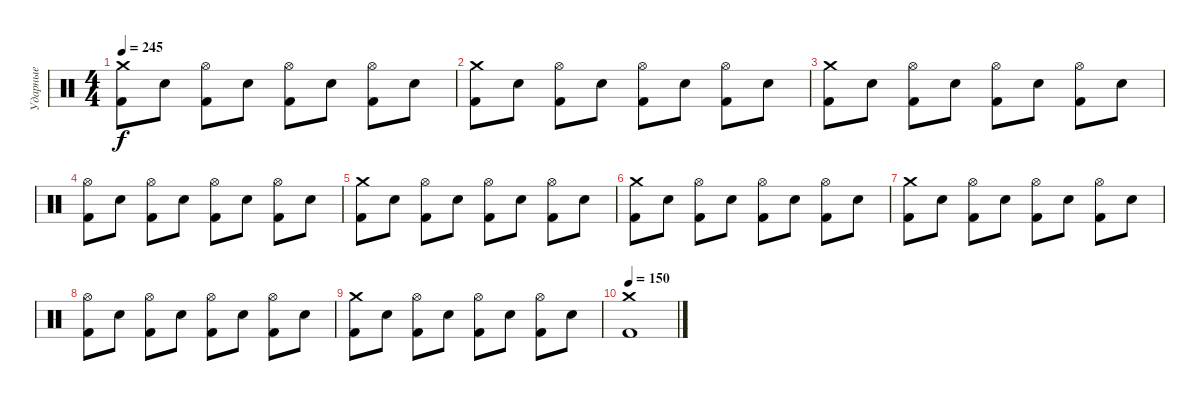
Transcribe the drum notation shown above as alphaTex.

\track ("Ударные" "Ударные") {instrument percussion}
\staff {score}
\articulation defaults
\ts (4 4)
\tempo 245
\clef neutral
\ks c
("Crash medium (hit)" "Kick (hit) 2").8{dy f} "Snare (hit) 2".8 ("Hi-Hat (open)" "Kick (hit) 2").8 "Snare (hit) 2".8 ("Hi-Hat (open)" "Kick (hit) 2").8 "Snare (hit) 2".8 ("Hi-Hat (open)" "Kick (hit) 2").8 "Snare (hit) 2".8 |
("Crash medium (hit)" "Kick (hit) 2").8 "Snare (hit) 2".8 ("Hi-Hat (open)" "Kick (hit) 2").8 "Snare (hit) 2".8 ("Hi-Hat (open)" "Kick (hit) 2").8 "Snare (hit) 2".8 ("Hi-Hat (open)" "Kick (hit) 2").8 "Snare (hit) 2".8 |
("Crash medium (hit)" "Kick (hit) 2").8 "Snare (hit) 2".8 ("Hi-Hat (open)" "Kick (hit) 2").8 "Snare (hit) 2".8 ("Hi-Hat (open)" "Kick (hit) 2").8 "Snare (hit) 2".8 ("Hi-Hat (open)" "Kick (hit) 2").8 "Snare (hit) 2".8 |
("Hi-Hat (open)" "Kick (hit) 2").8 "Snare (hit) 2".8 ("Hi-Hat (open)" "Kick (hit) 2").8 "Snare (hit) 2".8 ("Hi-Hat (open)" "Kick (hit) 2").8 "Snare (hit) 2".8 ("Hi-Hat (open)" "Kick (hit) 2").8 "Snare (hit) 2".8 |
("Crash medium (hit)" "Kick (hit) 2").8 "Snare (hit) 2".8 ("Hi-Hat (open)" "Kick (hit) 2").8 "Snare (hit) 2".8 ("Hi-Hat (open)" "Kick (hit) 2").8 "Snare (hit) 2".8 ("Hi-Hat (open)" "Kick (hit) 2").8 "Snare (hit) 2".8 |
("Crash medium (hit)" "Kick (hit) 2").8 "Snare (hit) 2".8 ("Hi-Hat (open)" "Kick (hit) 2").8 "Snare (hit) 2".8 ("Hi-Hat (open)" "Kick (hit) 2").8 "Snare (hit) 2".8 ("Hi-Hat (open)" "Kick (hit) 2").8 "Snare (hit) 2".8 |
("Crash medium (hit)" "Kick (hit) 2").8 "Snare (hit) 2".8 ("Hi-Hat (open)" "Kick (hit) 2").8 "Snare (hit) 2".8 ("Hi-Hat (open)" "Kick (hit) 2").8 "Snare (hit) 2".8 ("Hi-Hat (open)" "Kick (hit) 2").8 "Snare (hit) 2".8 |
("Hi-Hat (open)" "Kick (hit) 2").8 "Snare (hit) 2".8 ("Hi-Hat (open)" "Kick (hit) 2").8 "Snare (hit) 2".8 ("Hi-Hat (open)" "Kick (hit) 2").8 "Snare (hit) 2".8 ("Hi-Hat (open)" "Kick (hit) 2").8 "Snare (hit) 2".8 |
("Crash medium (hit)" "Kick (hit) 2").8 "Snare (hit) 2".8 ("Hi-Hat (open)" "Kick (hit) 2").8 "Snare (hit) 2".8 ("Hi-Hat (open)" "Kick (hit) 2").8 "Snare (hit) 2".8 ("Hi-Hat (open)" "Kick (hit) 2").8 "Snare (hit) 2".8 |
\tempo 150
("Crash medium (hit)" "Kick (hit) 2").1
